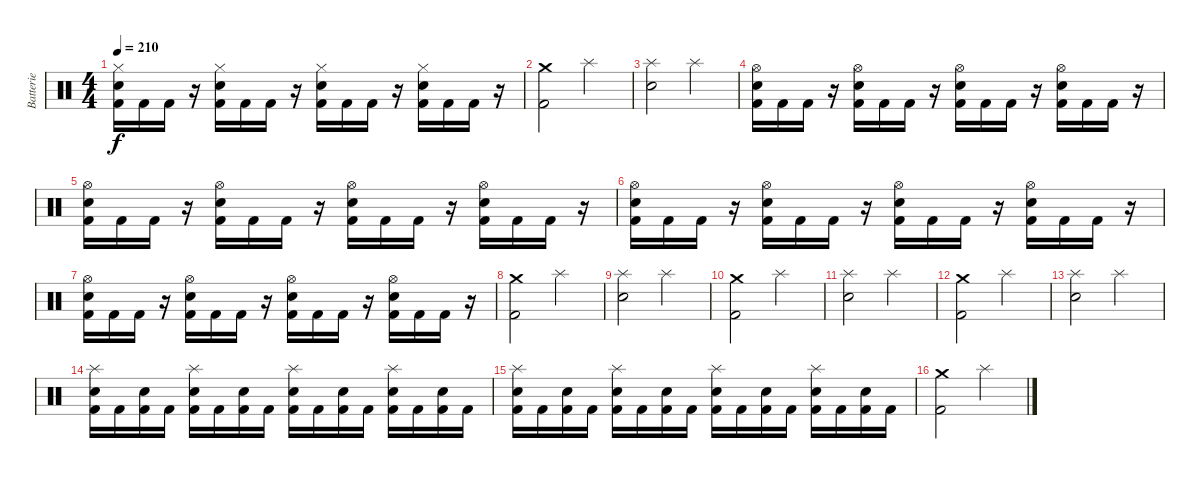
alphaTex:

\track ("Batterie" "Batterie") {instrument percussion}
\staff {score}
\articulation defaults
\ts (4 4)
\tempo 210
\clef neutral
\ks c
("Hi-Hat (closed)" "Electric Snare (hit)" "Kick (hit) 2").16{dy f} "Kick (hit) 2".16 "Kick (hit) 2".16 r.16 ("Hi-Hat (closed)" "Electric Snare (hit)" "Kick (hit) 2").16 "Kick (hit) 2".16 "Kick (hit) 2".16 r.16 ("Hi-Hat (closed)" "Electric Snare (hit)" "Kick (hit) 2").16 "Kick (hit) 2".16 "Kick (hit) 2".16 r.16 ("Hi-Hat (closed)" "Electric Snare (hit)" "Kick (hit) 2").16 "Kick (hit) 2".16 "Kick (hit) 2".16 r.16 |
("Crash medium (hit)" "Kick (hit) 2").2 "Splash (hit)".2 |
("Splash (hit)" "Electric Snare (hit)").2 "Splash (hit)".2 |
("Hi-Hat (open)" "Electric Snare (hit)" "Kick (hit) 2").16 "Kick (hit) 2".16 "Kick (hit) 2".16 r.16 ("Hi-Hat (open)" "Electric Snare (hit)" "Kick (hit) 2").16 "Kick (hit) 2".16 "Kick (hit) 2".16 r.16 ("Hi-Hat (open)" "Electric Snare (hit)" "Kick (hit) 2").16 "Kick (hit) 2".16 "Kick (hit) 2".16 r.16 ("Hi-Hat (open)" "Electric Snare (hit)" "Kick (hit) 2").16 "Kick (hit) 2".16 "Kick (hit) 2".16 r.16 |
("Hi-Hat (open)" "Electric Snare (hit)" "Kick (hit) 2").16 "Kick (hit) 2".16 "Kick (hit) 2".16 r.16 ("Hi-Hat (open)" "Electric Snare (hit)" "Kick (hit) 2").16 "Kick (hit) 2".16 "Kick (hit) 2".16 r.16 ("Hi-Hat (open)" "Electric Snare (hit)" "Kick (hit) 2").16 "Kick (hit) 2".16 "Kick (hit) 2".16 r.16 ("Hi-Hat (open)" "Electric Snare (hit)" "Kick (hit) 2").16 "Kick (hit) 2".16 "Kick (hit) 2".16 r.16 |
("Hi-Hat (open)" "Electric Snare (hit)" "Kick (hit) 2").16 "Kick (hit) 2".16 "Kick (hit) 2".16 r.16 ("Hi-Hat (open)" "Electric Snare (hit)" "Kick (hit) 2").16 "Kick (hit) 2".16 "Kick (hit) 2".16 r.16 ("Hi-Hat (open)" "Electric Snare (hit)" "Kick (hit) 2").16 "Kick (hit) 2".16 "Kick (hit) 2".16 r.16 ("Hi-Hat (open)" "Electric Snare (hit)" "Kick (hit) 2").16 "Kick (hit) 2".16 "Kick (hit) 2".16 r.16 |
("Hi-Hat (open)" "Electric Snare (hit)" "Kick (hit) 2").16 "Kick (hit) 2".16 "Kick (hit) 2".16 r.16 ("Hi-Hat (open)" "Electric Snare (hit)" "Kick (hit) 2").16 "Kick (hit) 2".16 "Kick (hit) 2".16 r.16 ("Hi-Hat (open)" "Electric Snare (hit)" "Kick (hit) 2").16 "Kick (hit) 2".16 "Kick (hit) 2".16 r.16 ("Hi-Hat (open)" "Electric Snare (hit)" "Kick (hit) 2").16 "Kick (hit) 2".16 "Kick (hit) 2".16 r.16 |
("Crash medium (hit)" "Kick (hit) 2").2 "Splash (hit)".2 |
("Splash (hit)" "Electric Snare (hit)").2 "Splash (hit)".2 |
("Crash medium (hit)" "Kick (hit) 2").2 "Splash (hit)".2 |
("Splash (hit)" "Electric Snare (hit)").2 "Splash (hit)".2 |
("Crash medium (hit)" "Kick (hit) 2").2 "Splash (hit)".2 |
("Splash (hit)" "Electric Snare (hit)").2 "Splash (hit)".2 |
("Splash (hit)" "Electric Snare (hit)" "Kick (hit) 2").16 "Kick (hit) 2".16 ("Electric Snare (hit)" "Kick (hit) 2").16 "Kick (hit) 2".16 ("Splash (hit)" "Electric Snare (hit)" "Kick (hit) 2").16 "Kick (hit) 2".16 ("Electric Snare (hit)" "Kick (hit) 2").16 "Kick (hit) 2".16 ("Splash (hit)" "Electric Snare (hit)" "Kick (hit) 2").16 "Kick (hit) 2".16 ("Electric Snare (hit)" "Kick (hit) 2").16 "Kick (hit) 2".16 ("Splash (hit)" "Electric Snare (hit)" "Kick (hit) 2").16 "Kick (hit) 2".16 ("Electric Snare (hit)" "Kick (hit) 2").16 "Kick (hit) 2".16 |
("Splash (hit)" "Electric Snare (hit)" "Kick (hit) 2").16 "Kick (hit) 2".16 ("Electric Snare (hit)" "Kick (hit) 2").16 "Kick (hit) 2".16 ("Splash (hit)" "Electric Snare (hit)" "Kick (hit) 2").16 "Kick (hit) 2".16 ("Electric Snare (hit)" "Kick (hit) 2").16 "Kick (hit) 2".16 ("Splash (hit)" "Electric Snare (hit)" "Kick (hit) 2").16 "Kick (hit) 2".16 ("Electric Snare (hit)" "Kick (hit) 2").16 "Kick (hit) 2".16 ("Splash (hit)" "Electric Snare (hit)" "Kick (hit) 2").16 "Kick (hit) 2".16 ("Electric Snare (hit)" "Kick (hit) 2").16 "Kick (hit) 2".16 |
("Crash medium (hit)" "Kick (hit) 2").2 "Splash (hit)".2
